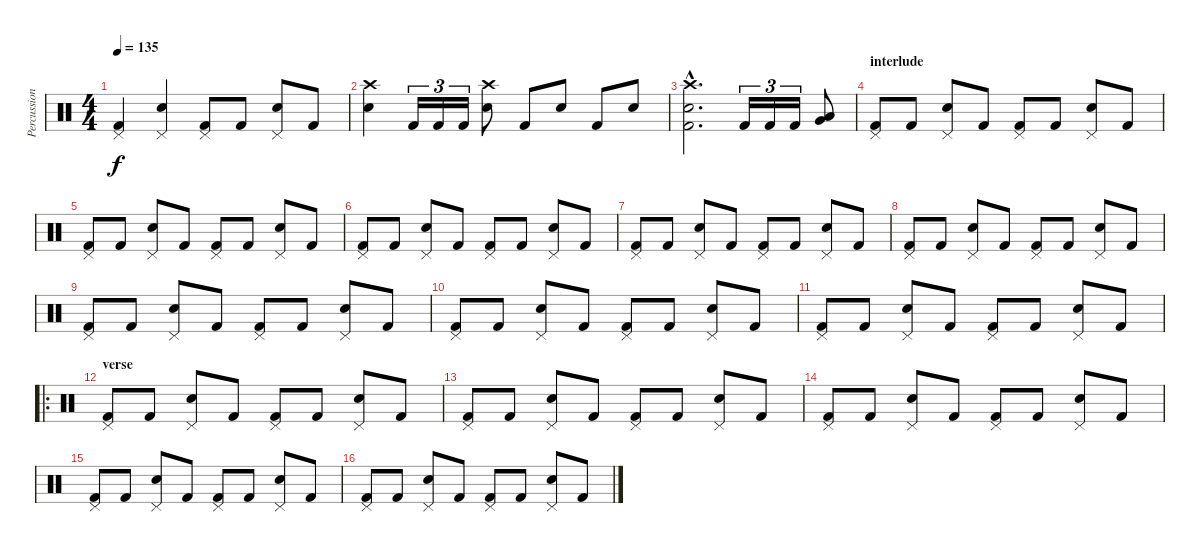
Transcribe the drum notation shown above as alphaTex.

\track ("Percussion" "Percussion") {instrument percussion}
\staff {score}
\articulation defaults
\ts (4 4)
\tempo 135
\clef neutral
\ks c
("Pedal Hi-Hat (hit)" "Kick (hit) 2").4{dy f} ("Pedal Hi-Hat (hit)" "Electric Snare (hit)").4 ("Pedal Hi-Hat (hit)" "Kick (hit) 2").8 "Kick (hit) 2".8 ("Pedal Hi-Hat (hit)" "Electric Snare (hit)").8 "Kick (hit) 2".8 |
("Crash high (hit)" "Electric Snare (hit)").4 "Kick (hit) 2".16{tu (3 2)} "Kick (hit) 2".16{tu (3 2)} "Kick (hit) 2".16{tu (3 2)} ("Crash high (hit)" "Electric Snare (hit)").8 "Kick (hit) 2".8 "Electric Snare (hit)".8 "Kick (hit) 2".8 "Electric Snare (hit)".8 |
("Crash high (hit)"{hac} "Electric Snare (hit)"{hac} "Kick (hit) 2"{hac}).2{d} "Kick (hit) 2".16{tu (3 2)} "Kick (hit) 2".16{tu (3 2)} "Kick (hit) 2".16{tu (3 2)} ("Very Low Tom (hit)" "Low Tom (hit)").8 |
\section ("" "interlude")
("Pedal Hi-Hat (hit)" "Kick (hit) 2").8 "Kick (hit) 2".8 ("Pedal Hi-Hat (hit)" "Electric Snare (hit)").8 "Kick (hit) 2".8 ("Pedal Hi-Hat (hit)" "Kick (hit) 2").8 "Kick (hit) 2".8 ("Pedal Hi-Hat (hit)" "Electric Snare (hit)").8 "Kick (hit) 2".8 |
("Pedal Hi-Hat (hit)" "Kick (hit) 2").8 "Kick (hit) 2".8 ("Pedal Hi-Hat (hit)" "Electric Snare (hit)").8 "Kick (hit) 2".8 ("Pedal Hi-Hat (hit)" "Kick (hit) 2").8 "Kick (hit) 2".8 ("Pedal Hi-Hat (hit)" "Electric Snare (hit)").8 "Kick (hit) 2".8 |
("Pedal Hi-Hat (hit)" "Kick (hit) 2").8 "Kick (hit) 2".8 ("Pedal Hi-Hat (hit)" "Electric Snare (hit)").8 "Kick (hit) 2".8 ("Pedal Hi-Hat (hit)" "Kick (hit) 2").8 "Kick (hit) 2".8 ("Pedal Hi-Hat (hit)" "Electric Snare (hit)").8 "Kick (hit) 2".8 |
("Pedal Hi-Hat (hit)" "Kick (hit) 2").8 "Kick (hit) 2".8 ("Pedal Hi-Hat (hit)" "Electric Snare (hit)").8 "Kick (hit) 2".8 ("Pedal Hi-Hat (hit)" "Kick (hit) 2").8 "Kick (hit) 2".8 ("Pedal Hi-Hat (hit)" "Electric Snare (hit)").8 "Kick (hit) 2".8 |
("Pedal Hi-Hat (hit)" "Kick (hit) 2").8 "Kick (hit) 2".8 ("Pedal Hi-Hat (hit)" "Electric Snare (hit)").8 "Kick (hit) 2".8 ("Pedal Hi-Hat (hit)" "Kick (hit) 2").8 "Kick (hit) 2".8 ("Pedal Hi-Hat (hit)" "Electric Snare (hit)").8 "Kick (hit) 2".8 |
("Pedal Hi-Hat (hit)" "Kick (hit) 2").8 "Kick (hit) 2".8 ("Pedal Hi-Hat (hit)" "Electric Snare (hit)").8 "Kick (hit) 2".8 ("Pedal Hi-Hat (hit)" "Kick (hit) 2").8 "Kick (hit) 2".8 ("Pedal Hi-Hat (hit)" "Electric Snare (hit)").8 "Kick (hit) 2".8 |
("Pedal Hi-Hat (hit)" "Kick (hit) 2").8 "Kick (hit) 2".8 ("Pedal Hi-Hat (hit)" "Electric Snare (hit)").8 "Kick (hit) 2".8 ("Pedal Hi-Hat (hit)" "Kick (hit) 2").8 "Kick (hit) 2".8 ("Pedal Hi-Hat (hit)" "Electric Snare (hit)").8 "Kick (hit) 2".8 |
("Pedal Hi-Hat (hit)" "Kick (hit) 2").8 "Kick (hit) 2".8 ("Pedal Hi-Hat (hit)" "Electric Snare (hit)").8 "Kick (hit) 2".8 ("Pedal Hi-Hat (hit)" "Kick (hit) 2").8 "Kick (hit) 2".8 ("Pedal Hi-Hat (hit)" "Electric Snare (hit)").8 "Kick (hit) 2".8 |
\ro
\section ("" "verse")
("Pedal Hi-Hat (hit)" "Kick (hit) 2").8 "Kick (hit) 2".8 ("Pedal Hi-Hat (hit)" "Electric Snare (hit)").8 "Kick (hit) 2".8 ("Pedal Hi-Hat (hit)" "Kick (hit) 2").8 "Kick (hit) 2".8 ("Pedal Hi-Hat (hit)" "Electric Snare (hit)").8 "Kick (hit) 2".8 |
("Pedal Hi-Hat (hit)" "Kick (hit) 2").8 "Kick (hit) 2".8 ("Pedal Hi-Hat (hit)" "Electric Snare (hit)").8 "Kick (hit) 2".8 ("Pedal Hi-Hat (hit)" "Kick (hit) 2").8 "Kick (hit) 2".8 ("Pedal Hi-Hat (hit)" "Electric Snare (hit)").8 "Kick (hit) 2".8 |
("Pedal Hi-Hat (hit)" "Kick (hit) 2").8 "Kick (hit) 2".8 ("Pedal Hi-Hat (hit)" "Electric Snare (hit)").8 "Kick (hit) 2".8 ("Pedal Hi-Hat (hit)" "Kick (hit) 2").8 "Kick (hit) 2".8 ("Pedal Hi-Hat (hit)" "Electric Snare (hit)").8 "Kick (hit) 2".8 |
("Pedal Hi-Hat (hit)" "Kick (hit) 2").8 "Kick (hit) 2".8 ("Pedal Hi-Hat (hit)" "Electric Snare (hit)").8 "Kick (hit) 2".8 ("Pedal Hi-Hat (hit)" "Kick (hit) 2").8 "Kick (hit) 2".8 ("Pedal Hi-Hat (hit)" "Electric Snare (hit)").8 "Kick (hit) 2".8 |
("Pedal Hi-Hat (hit)" "Kick (hit) 2").8 "Kick (hit) 2".8 ("Pedal Hi-Hat (hit)" "Electric Snare (hit)").8 "Kick (hit) 2".8 ("Pedal Hi-Hat (hit)" "Kick (hit) 2").8 "Kick (hit) 2".8 ("Pedal Hi-Hat (hit)" "Electric Snare (hit)").8 "Kick (hit) 2".8
